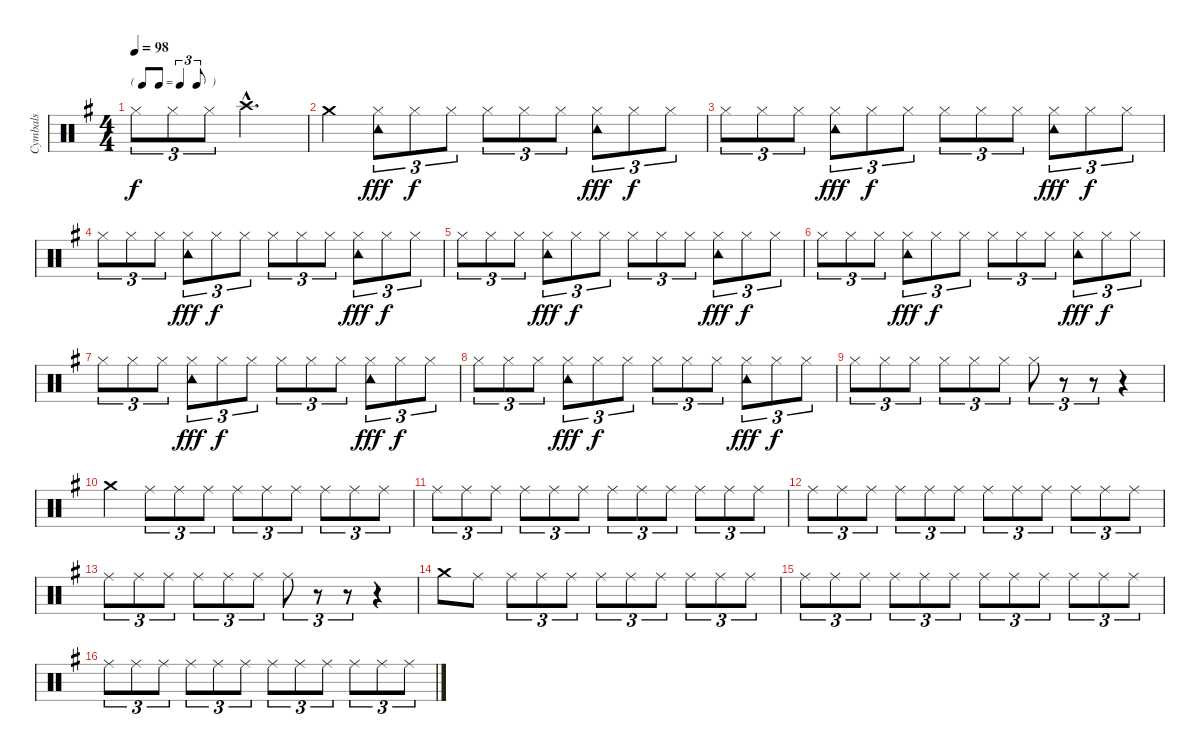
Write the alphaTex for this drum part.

\track ("Cymbals" "Cymbals") {instrument percussion}
\staff {score}
\articulation defaults
\ts (4 4)
\tf triplet8th
\tempo 98
\clef neutral
\ks g "Hi-Hat (closed)".8{tu (3 2) dy f} "Hi-Hat (closed)".8{tu (3 2)} "Hi-Hat (closed)".8{tu (3 2)} "Crash high (hit)"{hac}.2{d}
|
"Crash medium (hit)".4 ("Hi-Hat (closed)" "Tambourine (hit)").8{tu (3 2) dy fff} "Hi-Hat (closed)".8{tu (3 2) dy f} "Hi-Hat (closed)".8{tu (3 2)} "Hi-Hat (closed)".8{tu (3 2)} "Hi-Hat (closed)".8{tu (3 2)} "Hi-Hat (closed)".8{tu (3 2)} ("Hi-Hat (closed)" "Tambourine (hit)").8{tu (3 2) dy fff} "Hi-Hat (closed)".8{tu (3 2) dy f} "Hi-Hat (closed)".8{tu (3 2)} |
"Hi-Hat (closed)".8{tu (3 2)} "Hi-Hat (closed)".8{tu (3 2)} "Hi-Hat (closed)".8{tu (3 2)} ("Hi-Hat (closed)" "Tambourine (hit)").8{tu (3 2) dy fff} "Hi-Hat (closed)".8{tu (3 2) dy f} "Hi-Hat (closed)".8{tu (3 2)} "Hi-Hat (closed)".8{tu (3 2)} "Hi-Hat (closed)".8{tu (3 2)} "Hi-Hat (closed)".8{tu (3 2)} ("Hi-Hat (closed)" "Tambourine (hit)").8{tu (3 2) dy fff} "Hi-Hat (closed)".8{tu (3 2) dy f} "Hi-Hat (closed)".8{tu (3 2)} |
"Hi-Hat (closed)".8{tu (3 2)} "Hi-Hat (closed)".8{tu (3 2)} "Hi-Hat (closed)".8{tu (3 2)} ("Hi-Hat (closed)" "Tambourine (hit)").8{tu (3 2) dy fff} "Hi-Hat (closed)".8{tu (3 2) dy f} "Hi-Hat (closed)".8{tu (3 2)} "Hi-Hat (closed)".8{tu (3 2)} "Hi-Hat (closed)".8{tu (3 2)} "Hi-Hat (closed)".8{tu (3 2)} ("Hi-Hat (closed)" "Tambourine (hit)").8{tu (3 2) dy fff} "Hi-Hat (closed)".8{tu (3 2) dy f} "Hi-Hat (closed)".8{tu (3 2)} |
"Hi-Hat (closed)".8{tu (3 2)} "Hi-Hat (closed)".8{tu (3 2)} "Hi-Hat (closed)".8{tu (3 2)} ("Hi-Hat (closed)" "Tambourine (hit)").8{tu (3 2) dy fff} "Hi-Hat (closed)".8{tu (3 2) dy f} "Hi-Hat (closed)".8{tu (3 2)} "Hi-Hat (closed)".8{tu (3 2)} "Hi-Hat (closed)".8{tu (3 2)} "Hi-Hat (closed)".8{tu (3 2)} ("Hi-Hat (closed)" "Tambourine (hit)").8{tu (3 2) dy fff} "Hi-Hat (closed)".8{tu (3 2) dy f} "Hi-Hat (closed)".8{tu (3 2)} |
"Hi-Hat (closed)".8{tu (3 2)} "Hi-Hat (closed)".8{tu (3 2)} "Hi-Hat (closed)".8{tu (3 2)} ("Hi-Hat (closed)" "Tambourine (hit)").8{tu (3 2) dy fff} "Hi-Hat (closed)".8{tu (3 2) dy f} "Hi-Hat (closed)".8{tu (3 2)} "Hi-Hat (closed)".8{tu (3 2)} "Hi-Hat (closed)".8{tu (3 2)} "Hi-Hat (closed)".8{tu (3 2)} ("Hi-Hat (closed)" "Tambourine (hit)").8{tu (3 2) dy fff} "Hi-Hat (closed)".8{tu (3 2) dy f} "Hi-Hat (closed)".8{tu (3 2)} |
"Hi-Hat (closed)".8{tu (3 2)} "Hi-Hat (closed)".8{tu (3 2)} "Hi-Hat (closed)".8{tu (3 2)} ("Hi-Hat (closed)" "Tambourine (hit)").8{tu (3 2) dy fff} "Hi-Hat (closed)".8{tu (3 2) dy f} "Hi-Hat (closed)".8{tu (3 2)} "Hi-Hat (closed)".8{tu (3 2)} "Hi-Hat (closed)".8{tu (3 2)} "Hi-Hat (closed)".8{tu (3 2)} ("Hi-Hat (closed)" "Tambourine (hit)").8{tu (3 2) dy fff} "Hi-Hat (closed)".8{tu (3 2) dy f} "Hi-Hat (closed)".8{tu (3 2)} |
"Hi-Hat (closed)".8{tu (3 2)} "Hi-Hat (closed)".8{tu (3 2)} "Hi-Hat (closed)".8{tu (3 2)} ("Hi-Hat (closed)" "Tambourine (hit)").8{tu (3 2) dy fff} "Hi-Hat (closed)".8{tu (3 2) dy f} "Hi-Hat (closed)".8{tu (3 2)} "Hi-Hat (closed)".8{tu (3 2)} "Hi-Hat (closed)".8{tu (3 2)} "Hi-Hat (closed)".8{tu (3 2)} ("Hi-Hat (closed)" "Tambourine (hit)").8{tu (3 2) dy fff} "Hi-Hat (closed)".8{tu (3 2) dy f} "Hi-Hat (closed)".8{tu (3 2)} |
"Hi-Hat (closed)".8{tu (3 2)} "Hi-Hat (closed)".8{tu (3 2)} "Hi-Hat (closed)".8{tu (3 2)} "Hi-Hat (closed)".8{tu (3 2)} "Hi-Hat (closed)".8{tu (3 2)} "Hi-Hat (closed)".8{tu (3 2)} "Hi-Hat (closed)".8{tu (3 2)} r.8{tu (3 2)} r.8{tu (3 2)} r.4 |
"Crash medium (hit)".4 "Ride (middle)".8{tu (3 2)} "Ride (middle)".8{tu (3 2)} "Ride (middle)".8{tu (3 2)} "Ride (middle)".8{tu (3 2)} "Ride (middle)".8{tu (3 2)} "Ride (middle)".8{tu (3 2)} "Ride (middle)".8{tu (3 2)} "Ride (middle)".8{tu (3 2)} "Ride (middle)".8{tu (3 2)} |
"Ride (middle)".8{tu (3 2)} "Ride (middle)".8{tu (3 2)} "Ride (middle)".8{tu (3 2)} "Ride (middle)".8{tu (3 2)} "Ride (middle)".8{tu (3 2)} "Ride (middle)".8{tu (3 2)} "Ride (middle)".8{tu (3 2)} "Ride (middle)".8{tu (3 2)} "Ride (middle)".8{tu (3 2)} "Ride (middle)".8{tu (3 2)} "Ride (middle)".8{tu (3 2)} "Ride (middle)".8{tu (3 2)} |
"Ride (middle)".8{tu (3 2)} "Ride (middle)".8{tu (3 2)} "Ride (middle)".8{tu (3 2)} "Ride (middle)".8{tu (3 2)} "Ride (middle)".8{tu (3 2)} "Ride (middle)".8{tu (3 2)} "Ride (middle)".8{tu (3 2)} "Ride (middle)".8{tu (3 2)} "Ride (middle)".8{tu (3 2)} "Ride (middle)".8{tu (3 2)} "Ride (middle)".8{tu (3 2)} "Ride (middle)".8{tu (3 2)} |
"Ride (middle)".8{tu (3 2)} "Ride (middle)".8{tu (3 2)} "Ride (middle)".8{tu (3 2)} "Ride (middle)".8{tu (3 2)} "Ride (middle)".8{tu (3 2)} "Ride (middle)".8{tu (3 2)} "Ride (middle)".8{tu (3 2)} r.8{tu (3 2)} r.8{tu (3 2)} r.4 |
"Crash medium (hit)".8 "Ride (middle)".8 "Ride (middle)".8{tu (3 2)} "Ride (middle)".8{tu (3 2)} "Ride (middle)".8{tu (3 2)} "Ride (middle)".8{tu (3 2)} "Ride (middle)".8{tu (3 2)} "Ride (middle)".8{tu (3 2)} "Ride (middle)".8{tu (3 2)} "Ride (middle)".8{tu (3 2)} "Ride (middle)".8{tu (3 2)} |
"Ride (middle)".8{tu (3 2)} "Ride (middle)".8{tu (3 2)} "Ride (middle)".8{tu (3 2)} "Ride (middle)".8{tu (3 2)} "Ride (middle)".8{tu (3 2)} "Ride (middle)".8{tu (3 2)} "Ride (middle)".8{tu (3 2)} "Ride (middle)".8{tu (3 2)} "Ride (middle)".8{tu (3 2)} "Ride (middle)".8{tu (3 2)} "Ride (middle)".8{tu (3 2)} "Ride (middle)".8{tu (3 2)} |
"Ride (middle)".8{tu (3 2)} "Ride (middle)".8{tu (3 2)} "Ride (middle)".8{tu (3 2)} "Ride (middle)".8{tu (3 2)} "Ride (middle)".8{tu (3 2)} "Ride (middle)".8{tu (3 2)} "Ride (middle)".8{tu (3 2)} "Ride (middle)".8{tu (3 2)} "Ride (middle)".8{tu (3 2)} "Ride (middle)".8{tu (3 2)} "Ride (middle)".8{tu (3 2)} "Ride (middle)".8{tu (3 2)}
